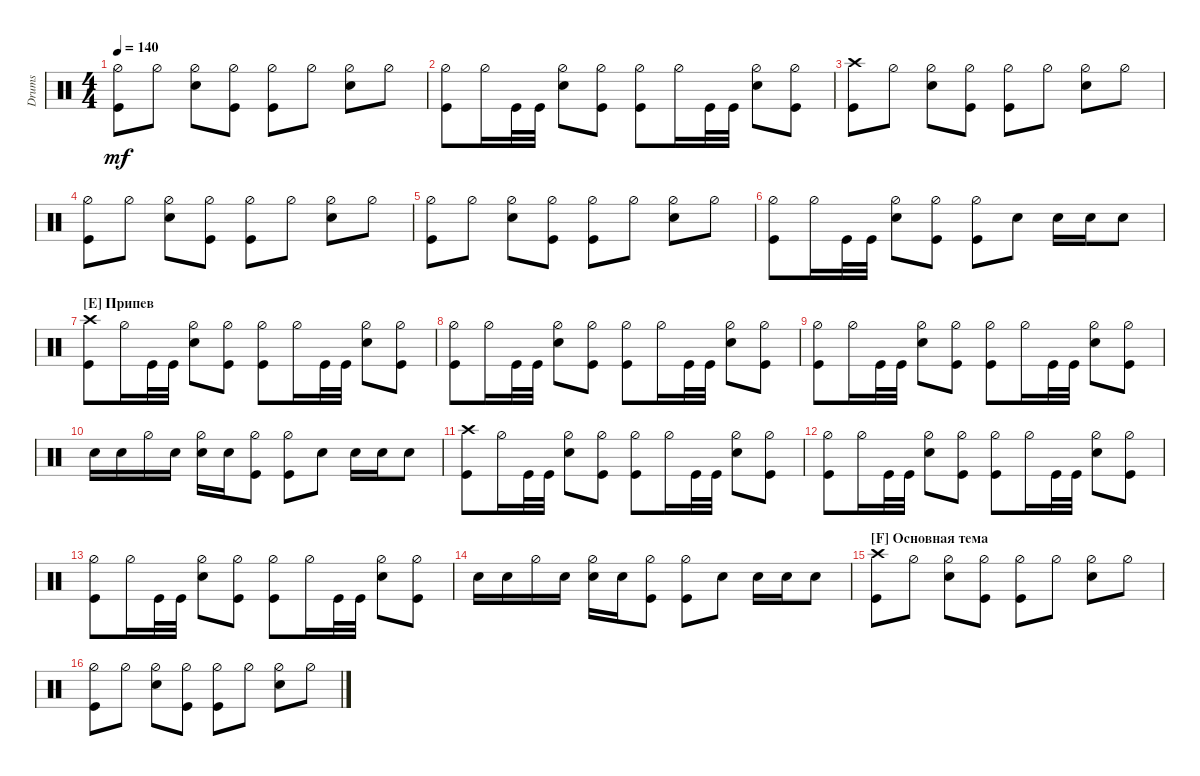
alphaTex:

\track ("Drumkit" "Drums") {instrument percussion}
\staff {score}
\articulation defaults
\ts (4 4)
\tempo 140
\clef neutral
\ks c
("Kick (hit)" "Hi-Hat (half)").8{dy mf} "Hi-Hat (half)".8 ("Snare (hit) 2" "Hi-Hat (half)").8 ("Kick (hit)" "Hi-Hat (half)").8 ("Kick (hit)" "Hi-Hat (half)").8 "Hi-Hat (half)".8 ("Snare (hit) 2" "Hi-Hat (half)").8 "Hi-Hat (half)".8 |
("Kick (hit)" "Hi-Hat (half)").8 "Hi-Hat (half)".16 "Kick (hit)".32 "Kick (hit)".32 ("Hi-Hat (half)" "Snare (hit) 2").8 ("Kick (hit)" "Hi-Hat (half)").8 ("Kick (hit)" "Hi-Hat (half)").8 "Hi-Hat (half)".16 "Kick (hit)".32 "Kick (hit)".32 ("Hi-Hat (half)" "Snare (hit) 2").8 ("Hi-Hat (half)" "Kick (hit)").8 |
("Kick (hit)" "Crash high (hit)").8 "Hi-Hat (half)".8 ("Snare (hit) 2" "Hi-Hat (half)").8 ("Kick (hit)" "Hi-Hat (half)").8 ("Kick (hit)" "Hi-Hat (half)").8 "Hi-Hat (half)".8 ("Snare (hit) 2" "Hi-Hat (half)").8 "Hi-Hat (half)".8 |
("Kick (hit)" "Hi-Hat (half)").8 "Hi-Hat (half)".8 ("Snare (hit) 2" "Hi-Hat (half)").8 ("Kick (hit)" "Hi-Hat (half)").8 ("Kick (hit)" "Hi-Hat (half)").8 "Hi-Hat (half)".8 ("Snare (hit) 2" "Hi-Hat (half)").8 "Hi-Hat (half)".8 |
("Kick (hit)" "Hi-Hat (half)").8 "Hi-Hat (half)".8 ("Snare (hit) 2" "Hi-Hat (half)").8 ("Kick (hit)" "Hi-Hat (half)").8 ("Kick (hit)" "Hi-Hat (half)").8 "Hi-Hat (half)".8 ("Snare (hit) 2" "Hi-Hat (half)").8 "Hi-Hat (half)".8 |
("Kick (hit)" "Hi-Hat (half)").8 "Hi-Hat (half)".16 "Kick (hit)".32 "Kick (hit)".32 ("Hi-Hat (half)" "Snare (hit) 2").8 ("Kick (hit)" "Hi-Hat (half)").8 ("Kick (hit)" "Hi-Hat (half)").8 "Snare (hit) 2".8 "Snare (hit) 2".16 "Snare (hit) 2".16 "Snare (hit) 2".8 |
\section ("E" "Припев")
("Kick (hit)" "Crash high (hit)").8 "Hi-Hat (half)".16 "Kick (hit)".32 "Kick (hit)".32 ("Hi-Hat (half)" "Snare (hit) 2").8 ("Kick (hit)" "Hi-Hat (half)").8 ("Kick (hit)" "Hi-Hat (half)").8 "Hi-Hat (half)".16 "Kick (hit)".32 "Kick (hit)".32 ("Hi-Hat (half)" "Snare (hit) 2").8 ("Hi-Hat (half)" "Kick (hit)").8 |
("Kick (hit)" "Hi-Hat (half)").8 "Hi-Hat (half)".16 "Kick (hit)".32 "Kick (hit)".32 ("Hi-Hat (half)" "Snare (hit) 2").8 ("Kick (hit)" "Hi-Hat (half)").8 ("Kick (hit)" "Hi-Hat (half)").8 "Hi-Hat (half)".16 "Kick (hit)".32 "Kick (hit)".32 ("Hi-Hat (half)" "Snare (hit) 2").8 ("Hi-Hat (half)" "Kick (hit)").8 |
("Kick (hit)" "Hi-Hat (half)").8 "Hi-Hat (half)".16 "Kick (hit)".32 "Kick (hit)".32 ("Hi-Hat (half)" "Snare (hit) 2").8 ("Kick (hit)" "Hi-Hat (half)").8 ("Kick (hit)" "Hi-Hat (half)").8 "Hi-Hat (half)".16 "Kick (hit)".32 "Kick (hit)".32 ("Hi-Hat (half)" "Snare (hit) 2").8 ("Hi-Hat (half)" "Kick (hit)").8 |
"Snare (hit) 2".16 "Snare (hit) 2".16 "Hi-Hat (half)".16 "Snare (hit) 2".16 ("Hi-Hat (half)" "Snare (hit) 2").16 "Snare (hit) 2".16 ("Kick (hit)" "Hi-Hat (half)").8 ("Kick (hit)" "Hi-Hat (half)").8 "Snare (hit) 2".8 "Snare (hit) 2".16 "Snare (hit) 2".16 "Snare (hit) 2".8 |
("Kick (hit)" "Crash high (hit)").8 "Hi-Hat (half)".16 "Kick (hit)".32 "Kick (hit)".32 ("Hi-Hat (half)" "Snare (hit) 2").8 ("Kick (hit)" "Hi-Hat (half)").8 ("Kick (hit)" "Hi-Hat (half)").8 "Hi-Hat (half)".16 "Kick (hit)".32 "Kick (hit)".32 ("Hi-Hat (half)" "Snare (hit) 2").8 ("Hi-Hat (half)" "Kick (hit)").8 |
("Kick (hit)" "Hi-Hat (half)").8 "Hi-Hat (half)".16 "Kick (hit)".32 "Kick (hit)".32 ("Hi-Hat (half)" "Snare (hit) 2").8 ("Kick (hit)" "Hi-Hat (half)").8 ("Kick (hit)" "Hi-Hat (half)").8 "Hi-Hat (half)".16 "Kick (hit)".32 "Kick (hit)".32 ("Hi-Hat (half)" "Snare (hit) 2").8 ("Hi-Hat (half)" "Kick (hit)").8 |
("Kick (hit)" "Hi-Hat (half)").8 "Hi-Hat (half)".16 "Kick (hit)".32 "Kick (hit)".32 ("Hi-Hat (half)" "Snare (hit) 2").8 ("Kick (hit)" "Hi-Hat (half)").8 ("Kick (hit)" "Hi-Hat (half)").8 "Hi-Hat (half)".16 "Kick (hit)".32 "Kick (hit)".32 ("Hi-Hat (half)" "Snare (hit) 2").8 ("Hi-Hat (half)" "Kick (hit)").8 |
"Snare (hit) 2".16 "Snare (hit) 2".16 "Hi-Hat (half)".16 "Snare (hit) 2".16 ("Hi-Hat (half)" "Snare (hit) 2").16 "Snare (hit) 2".16 ("Kick (hit)" "Hi-Hat (half)").8 ("Kick (hit)" "Hi-Hat (half)").8 "Snare (hit) 2".8 "Snare (hit) 2".16 "Snare (hit) 2".16 "Snare (hit) 2".8 |
\section ("F" "Основная тема")
("Kick (hit)" "Crash high (hit)").8 "Hi-Hat (half)".8 ("Snare (hit) 2" "Hi-Hat (half)").8 ("Kick (hit)" "Hi-Hat (half)").8 ("Kick (hit)" "Hi-Hat (half)").8 "Hi-Hat (half)".8 ("Snare (hit) 2" "Hi-Hat (half)").8 "Hi-Hat (half)".8 |
("Kick (hit)" "Hi-Hat (half)").8 "Hi-Hat (half)".8 ("Snare (hit) 2" "Hi-Hat (half)").8 ("Kick (hit)" "Hi-Hat (half)").8 ("Kick (hit)" "Hi-Hat (half)").8 "Hi-Hat (half)".8 ("Snare (hit) 2" "Hi-Hat (half)").8 "Hi-Hat (half)".8
